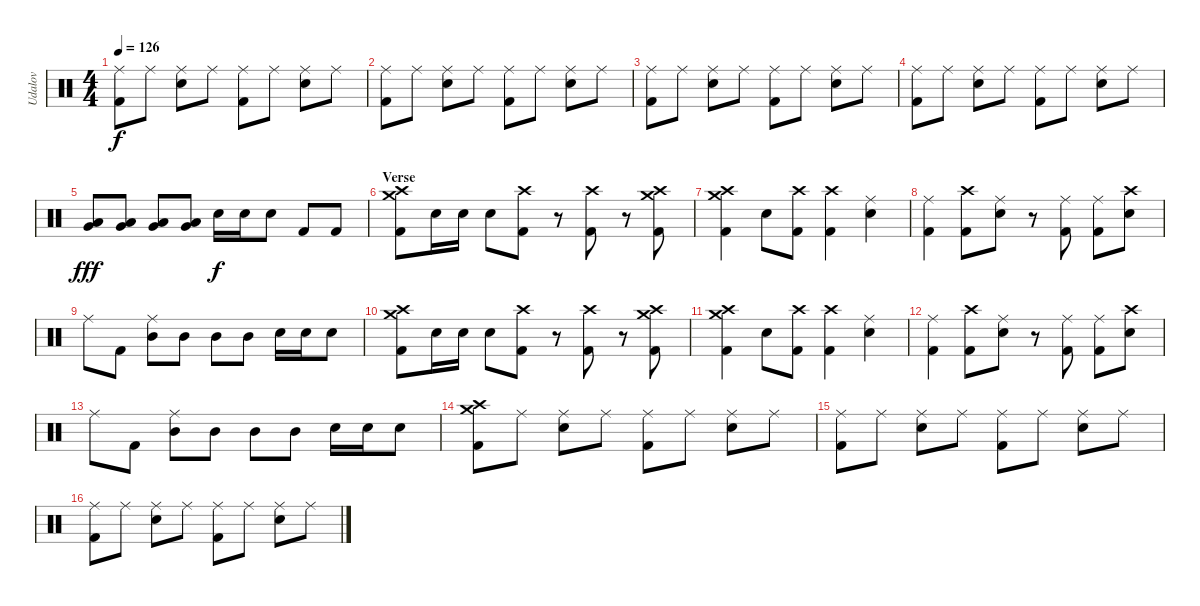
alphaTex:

\track ("Udalov" "Udalov") {instrument percussion}
\staff {score}
\articulation defaults
\ts (4 4)
\tempo 126
\clef neutral
\ks c
("Kick (hit) 2" "Ride (middle)").8{dy f} "Ride (middle)".8 ("Snare (hit) 2" "Ride (middle)").8 "Ride (middle)".8 ("Kick (hit) 2" "Ride (middle)").8 "Ride (middle)".8 ("Snare (hit) 2" "Ride (middle)").8 "Ride (middle)".8 |
("Kick (hit) 2" "Ride (middle)").8 "Ride (middle)".8 ("Snare (hit) 2" "Ride (middle)").8 "Ride (middle)".8 ("Kick (hit) 2" "Ride (middle)").8 "Ride (middle)".8 ("Snare (hit) 2" "Ride (middle)").8 "Ride (middle)".8 |
("Kick (hit) 2" "Ride (middle)").8 "Ride (middle)".8 ("Snare (hit) 2" "Ride (middle)").8 "Ride (middle)".8 ("Kick (hit) 2" "Ride (middle)").8 "Ride (middle)".8 ("Snare (hit) 2" "Ride (middle)").8 "Ride (middle)".8 |
("Kick (hit) 2" "Ride (middle)").8 "Ride (middle)".8 ("Snare (hit) 2" "Ride (middle)").8 "Ride (middle)".8 ("Kick (hit) 2" "Ride (middle)").8 "Ride (middle)".8 ("Snare (hit) 2" "Ride (middle)").8 "Ride (middle)".8 |
("Low Tom (hit)" "Very Low Tom (hit)").8{dy fff} ("Low Tom (hit)" "Very Low Tom (hit)").8 ("Low Tom (hit)" "Very Low Tom (hit)").8 ("Low Tom (hit)" "Very Low Tom (hit)").8 "Snare (hit) 2".16{dy f} "Snare (hit) 2".16 "Snare (hit) 2".8 "Kick (hit) 2".8 "Kick (hit) 2".8 |
\section ("" "Verse")
("Kick (hit) 2" "Crash high (hit)" "Crash medium (hit)").8 "Snare (hit) 2".16 "Electric Snare (hit)".16 "Snare (hit) 2".8 ("Kick (hit) 2" "Crash high (hit)").8 r.8 ("Kick (hit) 2" "Crash high (hit)").8 r.8 ("Kick (hit) 2" "Crash medium (hit)" "Crash high (hit)").8 |
("Kick (hit) 2" "Crash high (hit)" "Crash medium (hit)").4 "Snare (hit) 2".8 ("Kick (hit) 2" "Crash high (hit)").8 ("Kick (hit) 2" "Crash high (hit)").4 ("Snare (hit) 2" "Ride (middle)").4 |
("Kick (hit) 2" "Ride (middle)").4 ("Kick (hit) 2" "Crash high (hit)").8 ("Snare (hit) 2" "Ride (middle)").8 r.8 ("Kick (hit) 2" "Ride (middle)").8 ("Kick (hit) 2" "Ride (middle)").8 ("Snare (hit) 2" "Crash high (hit)").8 |
"Ride (middle)".8 "Kick (hit) 2".8 ("Mid Tom (hit)" "Ride (middle)").8 "Mid Tom (hit)".8 "Mid Tom (hit)".8 "Mid Tom (hit)".8 "Electric Snare (hit)".16 "Electric Snare (hit)".16 "Electric Snare (hit)".8 |
("Kick (hit) 2" "Crash high (hit)" "Crash medium (hit)").8 "Snare (hit) 2".16 "Electric Snare (hit)".16 "Snare (hit) 2".8 ("Kick (hit) 2" "Crash high (hit)").8 r.8 ("Kick (hit) 2" "Crash high (hit)").8 r.8 ("Kick (hit) 2" "Crash medium (hit)" "Crash high (hit)").8 |
("Kick (hit) 2" "Crash high (hit)" "Crash medium (hit)").4 "Snare (hit) 2".8 ("Kick (hit) 2" "Crash high (hit)").8 ("Kick (hit) 2" "Crash high (hit)").4 ("Snare (hit) 2" "Ride (middle)").4 |
("Kick (hit) 2" "Ride (middle)").4 ("Kick (hit) 2" "Crash high (hit)").8 ("Snare (hit) 2" "Ride (middle)").8 r.8 ("Kick (hit) 2" "Ride (middle)").8 ("Kick (hit) 2" "Ride (middle)").8 ("Snare (hit) 2" "Crash high (hit)").8 |
"Ride (middle)".8 "Kick (hit) 2".8 ("Mid Tom (hit)" "Ride (middle)").8 "Mid Tom (hit)".8 "Mid Tom (hit)".8 "Mid Tom (hit)".8 "Electric Snare (hit)".16 "Electric Snare (hit)".16 "Electric Snare (hit)".8 |
("Kick (hit) 2" "Crash high (hit)" "Crash medium (hit)").8 "Ride (middle)".8 ("Snare (hit) 2" "Ride (middle)").8 "Ride (middle)".8 ("Kick (hit) 2" "Ride (middle)").8 "Ride (middle)".8 ("Snare (hit) 2" "Ride (middle)").8 "Ride (middle)".8 |
("Kick (hit) 2" "Ride (middle)").8 "Ride (middle)".8 ("Snare (hit) 2" "Ride (middle)").8 "Ride (middle)".8 ("Kick (hit) 2" "Ride (middle)").8 "Ride (middle)".8 ("Snare (hit) 2" "Ride (middle)").8 "Ride (middle)".8 |
("Kick (hit) 2" "Ride (middle)").8 "Ride (middle)".8 ("Snare (hit) 2" "Ride (middle)").8 "Ride (middle)".8 ("Kick (hit) 2" "Ride (middle)").8 "Ride (middle)".8 ("Snare (hit) 2" "Ride (middle)").8 "Ride (middle)".8
